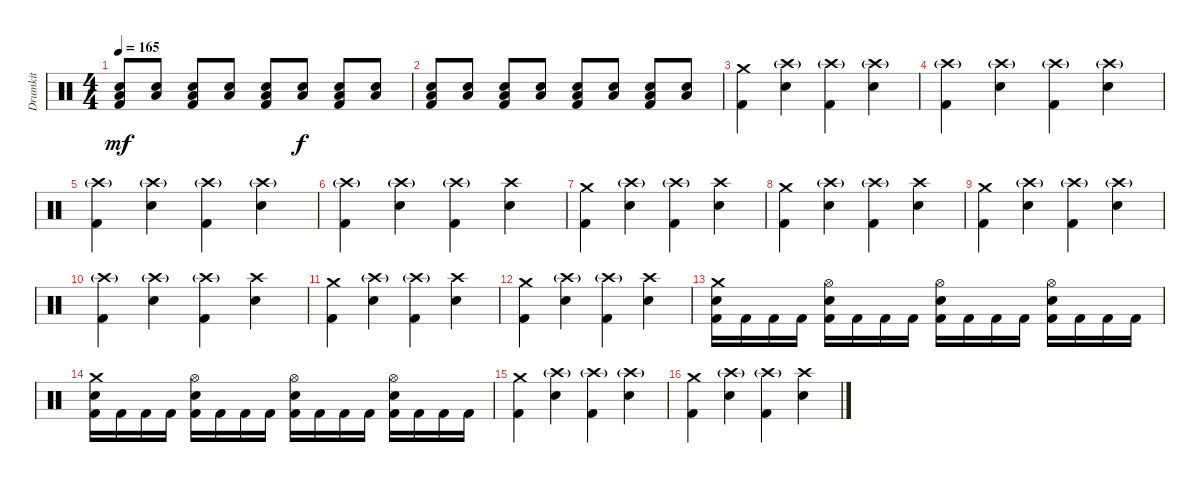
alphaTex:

\track ("Drumkit" "Drumkit") {instrument percussion}
\staff {score}
\articulation defaults
\ts (4 4)
\tempo 165
\clef neutral
\ks c
("Low Floor Tom (hit)" "Snare (hit) 2" "Kick (hit) 2").8{dy mf} ("Low Floor Tom (hit)" "Snare (hit) 2").8 ("Low Floor Tom (hit)" "Snare (hit) 2" "Kick (hit) 2").8 ("Low Floor Tom (hit)" "Snare (hit) 2").8 ("Low Floor Tom (hit)" "Snare (hit) 2" "Kick (hit) 2").8 ("Low Floor Tom (hit)" "Snare (hit) 2").8{dy f} ("Low Floor Tom (hit)" "Snare (hit) 2" "Kick (hit) 2").8 ("Low Floor Tom (hit)" "Snare (hit) 2").8 |
("Low Floor Tom (hit)" "Snare (hit) 2" "Kick (hit) 2").8 ("Low Floor Tom (hit)" "Snare (hit) 2").8 ("Low Floor Tom (hit)" "Snare (hit) 2" "Kick (hit) 2").8 ("Low Floor Tom (hit)" "Snare (hit) 2").8 ("Low Floor Tom (hit)" "Snare (hit) 2" "Kick (hit) 2").8 ("Low Floor Tom (hit)" "Snare (hit) 2").8 ("Low Floor Tom (hit)" "Snare (hit) 2" "Kick (hit) 2").8 ("Low Floor Tom (hit)" "Snare (hit) 2").8 |
("Crash medium (hit)" "Kick (hit) 2").4 ("Crash high (hit)"{g} "Snare (hit) 2").4 ("Crash high (hit)"{g} "Kick (hit) 2").4 ("Crash high (hit)"{g} "Snare (hit) 2").4 |
("Crash high (hit)"{g} "Kick (hit) 2").4 ("Crash high (hit)"{g} "Snare (hit) 2").4 ("Crash high (hit)"{g} "Kick (hit) 2").4 ("Crash high (hit)"{g} "Snare (hit) 2").4 |
("Crash high (hit)"{g} "Kick (hit) 2").4 ("Crash high (hit)"{g} "Snare (hit) 2").4 ("Crash high (hit)"{g} "Kick (hit) 2").4 ("Crash high (hit)"{g} "Snare (hit) 2").4 |
("Crash high (hit)"{g} "Kick (hit) 2").4 ("Crash high (hit)"{g} "Snare (hit) 2").4 ("Crash high (hit)"{g} "Kick (hit) 2").4 ("Crash high (hit)" "Snare (hit) 2").4 |
("Crash medium (hit)" "Kick (hit) 2").4 ("Crash high (hit)"{g} "Snare (hit) 2").4 ("Crash high (hit)"{g} "Kick (hit) 2").4 ("Crash high (hit)" "Snare (hit) 2").4 |
("Crash medium (hit)" "Kick (hit) 2").4 ("Crash high (hit)"{g} "Snare (hit) 2").4 ("Crash high (hit)"{g} "Kick (hit) 2").4 ("Crash high (hit)" "Snare (hit) 2").4 |
("Crash medium (hit)" "Kick (hit) 2").4 ("Crash high (hit)"{g} "Snare (hit) 2").4 ("Crash high (hit)"{g} "Kick (hit) 2").4 ("Crash high (hit)"{g} "Snare (hit) 2").4 |
("Crash high (hit)"{g} "Kick (hit) 2").4 ("Crash high (hit)"{g} "Snare (hit) 2").4 ("Crash high (hit)"{g} "Kick (hit) 2").4 ("Crash high (hit)" "Snare (hit) 2").4 |
("Crash medium (hit)" "Kick (hit) 2").4 ("Crash high (hit)"{g} "Snare (hit) 2").4 ("Crash high (hit)"{g} "Kick (hit) 2").4 ("Crash high (hit)" "Snare (hit) 2").4 |
("Crash medium (hit)" "Kick (hit) 2").4 ("Crash high (hit)"{g} "Snare (hit) 2").4 ("Crash high (hit)"{g} "Kick (hit) 2").4 ("Crash high (hit)" "Snare (hit) 2").4 |
("Crash medium (hit)" "Snare (hit) 2" "Kick (hit) 2").16 "Kick (hit) 2".16 "Kick (hit) 2".16 "Kick (hit) 2".16 ("Hi-Hat (open)" "Snare (hit) 2" "Kick (hit) 2").16 "Kick (hit) 2".16 "Kick (hit) 2".16 "Kick (hit) 2".16 ("Hi-Hat (open)" "Snare (hit) 2" "Kick (hit) 2").16 "Kick (hit) 2".16 "Kick (hit) 2".16 "Kick (hit) 2".16 ("Hi-Hat (open)" "Snare (hit) 2" "Kick (hit) 2").16 "Kick (hit) 2".16 "Kick (hit) 2".16 "Kick (hit) 2".16 |
("Crash medium (hit)" "Snare (hit) 2" "Kick (hit) 2").16 "Kick (hit) 2".16 "Kick (hit) 2".16 "Kick (hit) 2".16 ("Hi-Hat (open)" "Snare (hit) 2" "Kick (hit) 2").16 "Kick (hit) 2".16 "Kick (hit) 2".16 "Kick (hit) 2".16 ("Hi-Hat (open)" "Snare (hit) 2" "Kick (hit) 2").16 "Kick (hit) 2".16 "Kick (hit) 2".16 "Kick (hit) 2".16 ("Hi-Hat (open)" "Snare (hit) 2" "Kick (hit) 2").16 "Kick (hit) 2".16 "Kick (hit) 2".16 "Kick (hit) 2".16 |
("Crash medium (hit)" "Kick (hit) 2").4 ("Crash high (hit)"{g} "Snare (hit) 2").4 ("Crash high (hit)"{g} "Kick (hit) 2").4 ("Crash high (hit)"{g} "Snare (hit) 2").4 |
("Crash medium (hit)" "Kick (hit) 2").4 ("Crash high (hit)"{g} "Snare (hit) 2").4 ("Crash high (hit)"{g} "Kick (hit) 2").4 ("Crash high (hit)" "Snare (hit) 2").4
